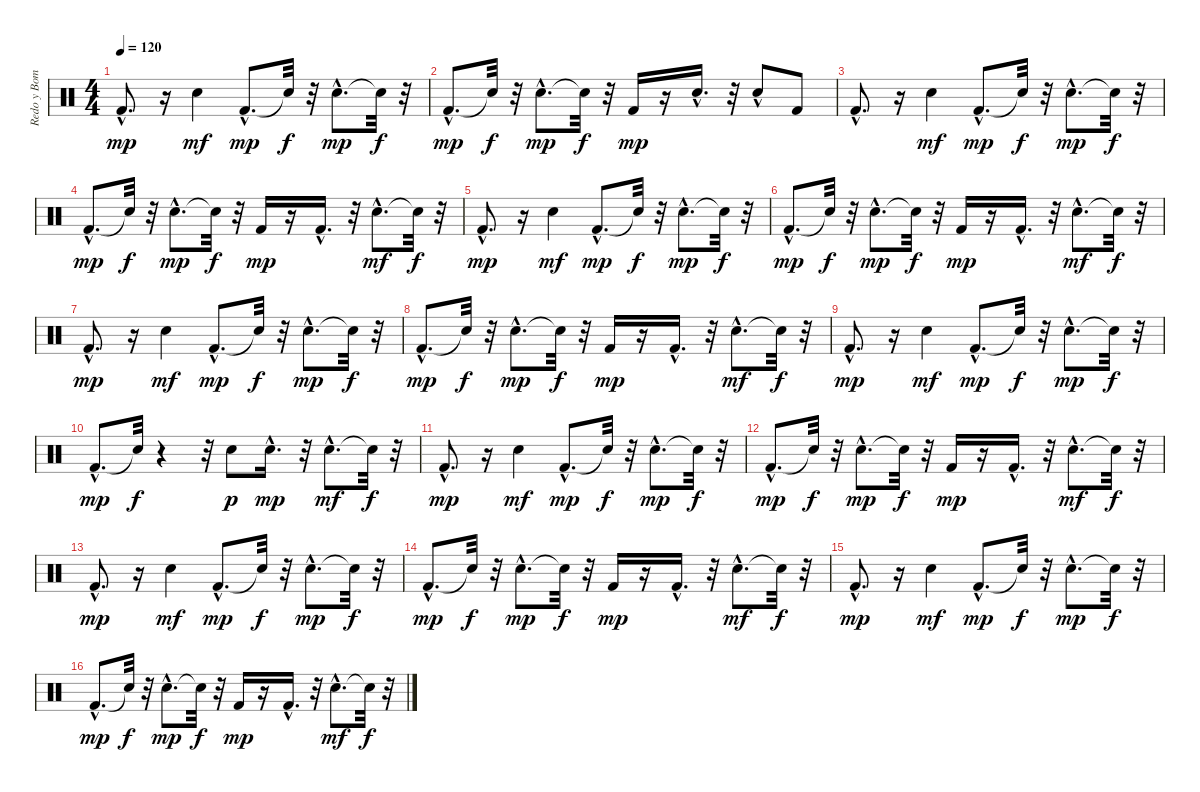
\track ("Redo y Bombo" "Redo y Bom") {instrument percussion}
\staff {score}
\articulation defaults
\ts (4 4)
\tempo 120
\clef neutral
\ks c "Kick (hit) 2"{hac}.8{d dy mp}
r.16 "Snare (hit) 2".4{dy mf} "Kick (hit) 2"{hac}.8{d dy mp} "Snare (hit)"{t}.32{dy f} r.32 "Snare (hit) 2"{hac}.8{d dy mp} "Snare (hit)"{t}.32{dy f} r.32 |
"Kick (hit) 2"{hac}.8{d dy mp} "Snare (hit)"{t}.32{dy f} r.32 "Snare (hit) 2"{hac}.8{d dy mp} "Snare (hit)"{t}.32{dy f} r.32 "Kick (hit) 2".16{dy mp} r.16 "Snare (hit) 2"{hac}.16{d} r.32 "Snare (hit) 2"{hac}.8 "Kick (hit) 2".8 |
"Kick (hit) 2"{hac}.8{d} r.16 "Snare (hit) 2".4{dy mf} "Kick (hit) 2"{hac}.8{d dy mp} "Snare (hit)"{t}.32{dy f} r.32 "Snare (hit) 2"{hac}.8{d dy mp} "Snare (hit)"{t}.32{dy f} r.32 |
"Kick (hit) 2"{hac}.8{d dy mp} "Snare (hit)"{t}.32{dy f} r.32 "Snare (hit) 2"{hac}.8{d dy mp} "Snare (hit)"{t}.32{dy f} r.32 "Kick (hit) 2".16{dy mp} r.16 "Kick (hit) 2"{hac}.16{d} r.32 "Snare (hit) 2"{hac}.8{d dy mf} "Snare (hit)"{t}.32{dy f} r.32 |
"Kick (hit) 2"{hac}.8{d dy mp} r.16 "Snare (hit) 2".4{dy mf} "Kick (hit) 2"{hac}.8{d dy mp} "Snare (hit)"{t}.32{dy f} r.32 "Snare (hit) 2"{hac}.8{d dy mp} "Snare (hit)"{t}.32{dy f} r.32 |
"Kick (hit) 2"{hac}.8{d dy mp} "Snare (hit)"{t}.32{dy f} r.32 "Snare (hit) 2"{hac}.8{d dy mp} "Snare (hit)"{t}.32{dy f} r.32 "Kick (hit) 2".16{dy mp} r.16 "Kick (hit) 2"{hac}.16{d} r.32 "Snare (hit) 2"{hac}.8{d dy mf} "Snare (hit)"{t}.32{dy f} r.32 |
"Kick (hit) 2"{hac}.8{d dy mp} r.16 "Snare (hit) 2".4{dy mf} "Kick (hit) 2"{hac}.8{d dy mp} "Snare (hit)"{t}.32{dy f} r.32 "Snare (hit) 2"{hac}.8{d dy mp} "Snare (hit)"{t}.32{dy f} r.32 |
"Kick (hit) 2"{hac}.8{d dy mp} "Snare (hit)"{t}.32{dy f} r.32 "Snare (hit) 2"{hac}.8{d dy mp} "Snare (hit)"{t}.32{dy f} r.32 "Kick (hit) 2".16{dy mp} r.16 "Kick (hit) 2"{hac}.16{d} r.32 "Snare (hit) 2"{hac}.8{d dy mf} "Snare (hit)"{t}.32{dy f} r.32 |
"Kick (hit) 2"{hac}.8{d dy mp} r.16 "Snare (hit) 2".4{dy mf} "Kick (hit) 2"{hac}.8{d dy mp} "Snare (hit)"{t}.32{dy f} r.32 "Snare (hit) 2"{hac}.8{d dy mp} "Snare (hit)"{t}.32{dy f} r.32 |
"Kick (hit) 2"{hac}.8{d dy mp} "Snare (hit)"{t}.32{dy f} r.4 r.32 "Electric Snare (hit)".8{dy p} "Electric Snare (hit)"{hac}.16{d dy mp} r.32 "Electric Snare (hit)"{hac}.8{d dy mf} "Snare (hit)"{t}.32{dy f} r.32 |
"Kick (hit) 2"{hac}.8{d dy mp} r.16 "Snare (hit) 2".4{dy mf} "Kick (hit) 2"{hac}.8{d dy mp} "Snare (hit)"{t}.32{dy f} r.32 "Snare (hit) 2"{hac}.8{d dy mp} "Snare (hit)"{t}.32{dy f} r.32 |
"Kick (hit) 2"{hac}.8{d dy mp} "Snare (hit)"{t}.32{dy f} r.32 "Snare (hit) 2"{hac}.8{d dy mp} "Snare (hit)"{t}.32{dy f} r.32 "Kick (hit) 2".16{dy mp} r.16 "Kick (hit) 2"{hac}.16{d} r.32 "Snare (hit) 2"{hac}.8{d dy mf} "Snare (hit)"{t}.32{dy f} r.32 |
"Kick (hit) 2"{hac}.8{d dy mp} r.16 "Snare (hit) 2".4{dy mf} "Kick (hit) 2"{hac}.8{d dy mp} "Snare (hit)"{t}.32{dy f} r.32 "Snare (hit) 2"{hac}.8{d dy mp} "Snare (hit)"{t}.32{dy f} r.32 |
"Kick (hit) 2"{hac}.8{d dy mp} "Snare (hit)"{t}.32{dy f} r.32 "Snare (hit) 2"{hac}.8{d dy mp} "Snare (hit)"{t}.32{dy f} r.32 "Kick (hit) 2".16{dy mp} r.16 "Kick (hit) 2"{hac}.16{d} r.32 "Snare (hit) 2"{hac}.8{d dy mf} "Snare (hit)"{t}.32{dy f} r.32 |
"Kick (hit) 2"{hac}.8{d dy mp} r.16 "Snare (hit) 2".4{dy mf} "Kick (hit) 2"{hac}.8{d dy mp} "Snare (hit)"{t}.32{dy f} r.32 "Snare (hit) 2"{hac}.8{d dy mp} "Snare (hit)"{t}.32{dy f} r.32 |
"Kick (hit) 2"{hac}.8{d dy mp} "Snare (hit)"{t}.32{dy f} r.32 "Snare (hit) 2"{hac}.8{d dy mp} "Snare (hit)"{t}.32{dy f} r.32 "Kick (hit) 2".16{dy mp} r.16 "Kick (hit) 2"{hac}.16{d} r.32 "Snare (hit) 2"{hac}.8{d dy mf} "Snare (hit)"{t}.32{dy f} r.32
